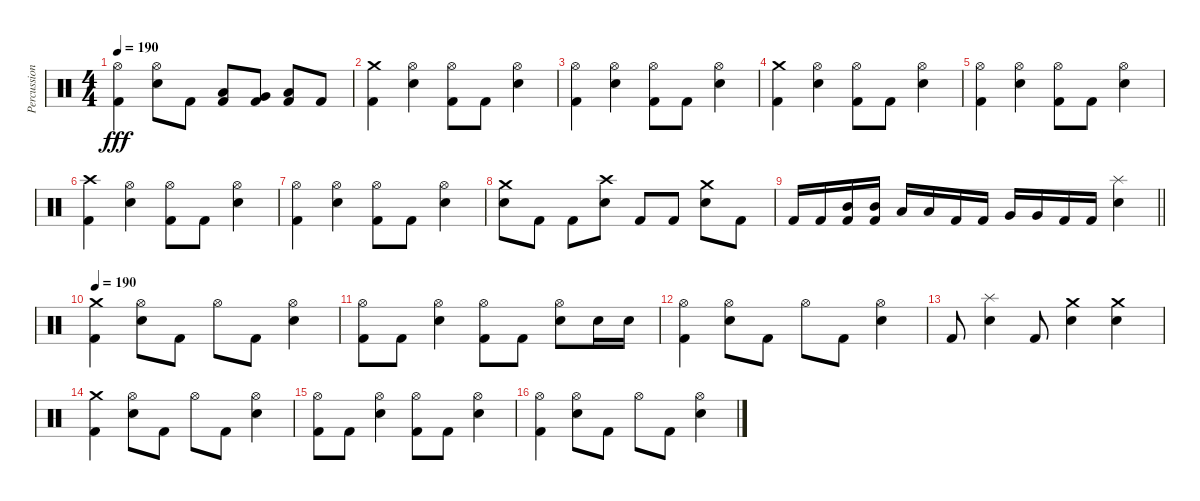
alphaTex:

\track ("Percussion" "Percussion") {instrument percussion}
\staff {score}
\articulation defaults
\ts (4 4)
\tempo 190
\clef neutral
\ks c
("Hi-Hat (open)" "Kick (hit) 2").4{dy fff} ("Hi-Hat (open)" "Electric Snare (hit)").8 "Kick (hit) 2".8 ("Kick (hit) 2" "Low Tom (hit)").8 ("Kick (hit) 2" "Very Low Tom (hit)").8 ("Kick (hit) 2" "Low Floor Tom (hit)").8 "Kick (hit) 2".8 |
("Crash medium (hit)" "Kick (hit) 2").4 ("Hi-Hat (open)" "Electric Snare (hit)").4 ("Hi-Hat (open)" "Kick (hit) 2").8 "Kick (hit) 2".8 ("Hi-Hat (open)" "Electric Snare (hit)").4 |
("Hi-Hat (open)" "Kick (hit) 2").4 ("Hi-Hat (open)" "Electric Snare (hit)").4 ("Hi-Hat (open)" "Kick (hit) 2").8 "Kick (hit) 2".8 ("Hi-Hat (open)" "Electric Snare (hit)").4 |
("Crash medium (hit)" "Kick (hit) 2").4 ("Hi-Hat (open)" "Electric Snare (hit)").4 ("Hi-Hat (open)" "Kick (hit) 2").8 "Kick (hit) 2".8 ("Hi-Hat (open)" "Electric Snare (hit)").4 |
("Hi-Hat (open)" "Kick (hit) 2").4 ("Hi-Hat (open)" "Electric Snare (hit)").4 ("Hi-Hat (open)" "Kick (hit) 2").8 "Kick (hit) 2".8 ("Hi-Hat (open)" "Electric Snare (hit)").4 |
("Crash high (hit)" "Kick (hit) 2").4 ("Hi-Hat (open)" "Electric Snare (hit)").4 ("Hi-Hat (open)" "Kick (hit) 2").8 "Kick (hit) 2".8 ("Hi-Hat (open)" "Electric Snare (hit)").4 |
("Hi-Hat (open)" "Kick (hit) 2").4 ("Hi-Hat (open)" "Electric Snare (hit)").4 ("Hi-Hat (open)" "Kick (hit) 2").8 "Kick (hit) 2".8 ("Hi-Hat (open)" "Electric Snare (hit)").4 |
("Crash medium (hit)" "Electric Snare (hit)").8 "Kick (hit) 2".8 "Kick (hit) 2".8 ("Crash high (hit)" "Electric Snare (hit)").8 "Kick (hit) 2".8 "Kick (hit) 2".8 ("Crash medium (hit)" "Electric Snare (hit)").8 "Kick (hit) 2".8 |
\barLineRight lightlight "Kick (hit) 2".16 "Kick (hit) 2".16
("Mid Tom (hit)" "Kick (hit) 2").16 ("Mid Tom (hit)" "Kick (hit) 2").16 "Low Tom (hit)".16 "Low Tom (hit)".16 "Kick (hit) 2".16 "Kick (hit) 2".16 "Very Low Tom (hit)".16 "Very Low Tom (hit)".16 "Kick (hit) 2".16 "Kick (hit) 2".16 ("Splash (hit)" "Electric Snare (hit)").4 |
\tempo 190
("Crash medium (hit)" "Kick (hit) 2").4 ("Hi-Hat (open)" "Electric Snare (hit)").8 "Kick (hit) 2".8 "Hi-Hat (open)".8 "Kick (hit) 2".8 ("Hi-Hat (open)" "Electric Snare (hit)").4 |
("Hi-Hat (open)" "Kick (hit) 2").8 "Kick (hit) 2".8 ("Hi-Hat (open)" "Electric Snare (hit)").4 ("Hi-Hat (open)" "Kick (hit) 2").8 "Kick (hit) 2".8 ("Hi-Hat (open)" "Electric Snare (hit)").8 "Electric Snare (hit)".16 "Electric Snare (hit)".16 |
("Hi-Hat (open)" "Kick (hit) 2").4 ("Hi-Hat (open)" "Electric Snare (hit)").8 "Kick (hit) 2".8 "Hi-Hat (open)".8 "Kick (hit) 2".8 ("Hi-Hat (open)" "Electric Snare (hit)").4 |
"Kick (hit) 2".8 ("Splash (hit)" "Electric Snare (hit)").4 "Kick (hit) 2".8 ("Crash medium (hit)" "Electric Snare (hit)").4 ("Crash medium (hit)" "Electric Snare (hit)").4 |
("Crash medium (hit)" "Kick (hit) 2").4 ("Hi-Hat (open)" "Electric Snare (hit)").8 "Kick (hit) 2".8 "Hi-Hat (open)".8 "Kick (hit) 2".8 ("Hi-Hat (open)" "Electric Snare (hit)").4 |
("Hi-Hat (open)" "Kick (hit) 2").8 "Kick (hit) 2".8 ("Hi-Hat (open)" "Electric Snare (hit)").4 ("Hi-Hat (open)" "Kick (hit) 2").8 "Kick (hit) 2".8 ("Hi-Hat (open)" "Electric Snare (hit)").4 |
("Hi-Hat (open)" "Kick (hit) 2").4 ("Hi-Hat (open)" "Electric Snare (hit)").8 "Kick (hit) 2".8 "Hi-Hat (open)".8 "Kick (hit) 2".8 ("Hi-Hat (open)" "Electric Snare (hit)").4
